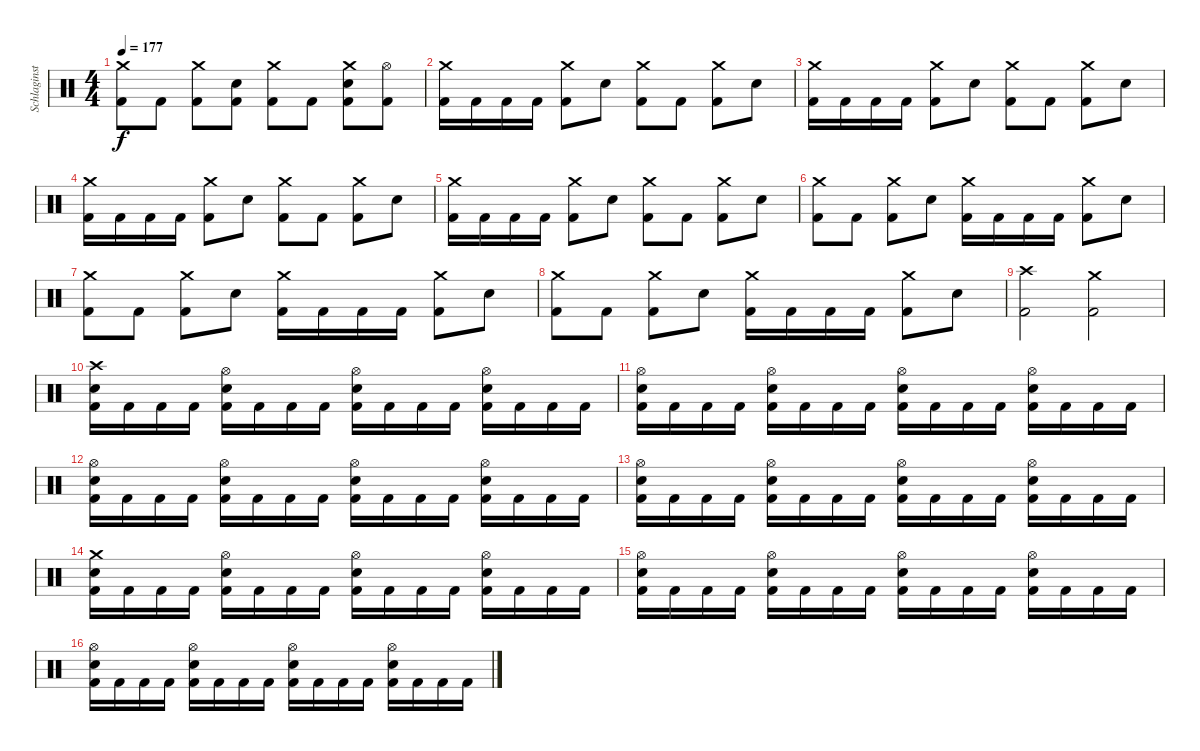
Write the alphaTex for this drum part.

\track ("Schlaginstrumente - Auswahl" "Schlaginst") {instrument percussion}
\staff {score}
\articulation defaults
\ts (4 4)
\tempo 177
\clef neutral
\ks c
("Crash medium (hit)" "Kick (hit) 2").8{dy f} "Kick (hit) 2".8 ("Crash medium (hit)" "Kick (hit) 2").8 ("Snare (hit) 2" "Kick (hit) 2").8 ("Crash medium (hit)" "Kick (hit) 2").8 "Kick (hit) 2".8 ("Crash medium (hit)" "Snare (hit) 2" "Kick (hit) 2").8 ("Hi-Hat (open)" "Kick (hit) 2").8 |
("Crash medium (hit)" "Kick (hit) 2").16 "Kick (hit) 2".16 "Kick (hit) 2".16 "Kick (hit) 2".16 ("Crash medium (hit)" "Kick (hit) 2").8 "Snare (hit) 2".8 ("Crash medium (hit)" "Kick (hit) 2").8 "Kick (hit) 2".8 ("Crash medium (hit)" "Kick (hit) 2").8 "Snare (hit) 2".8 |
("Crash medium (hit)" "Kick (hit) 2").16 "Kick (hit) 2".16 "Kick (hit) 2".16 "Kick (hit) 2".16 ("Crash medium (hit)" "Kick (hit) 2").8 "Snare (hit) 2".8 ("Crash medium (hit)" "Kick (hit) 2").8 "Kick (hit) 2".8 ("Crash medium (hit)" "Kick (hit) 2").8 "Snare (hit) 2".8 |
("Crash medium (hit)" "Kick (hit) 2").16 "Kick (hit) 2".16 "Kick (hit) 2".16 "Kick (hit) 2".16 ("Crash medium (hit)" "Kick (hit) 2").8 "Snare (hit) 2".8 ("Crash medium (hit)" "Kick (hit) 2").8 "Kick (hit) 2".8 ("Crash medium (hit)" "Kick (hit) 2").8 "Snare (hit) 2".8 |
("Crash medium (hit)" "Kick (hit) 2").16 "Kick (hit) 2".16 "Kick (hit) 2".16 "Kick (hit) 2".16 ("Crash medium (hit)" "Kick (hit) 2").8 "Snare (hit) 2".8 ("Crash medium (hit)" "Kick (hit) 2").8 "Kick (hit) 2".8 ("Crash medium (hit)" "Kick (hit) 2").8 "Snare (hit) 2".8 |
("Crash medium (hit)" "Kick (hit) 2").8 "Kick (hit) 2".8 ("Crash medium (hit)" "Kick (hit) 2").8 "Snare (hit) 2".8 ("Crash medium (hit)" "Kick (hit) 2").16 "Kick (hit) 2".16 "Kick (hit) 2".16 "Kick (hit) 2".16 ("Crash medium (hit)" "Kick (hit) 2").8 "Snare (hit) 2".8 |
("Crash medium (hit)" "Kick (hit) 2").8 "Kick (hit) 2".8 ("Crash medium (hit)" "Kick (hit) 2").8 "Snare (hit) 2".8 ("Crash medium (hit)" "Kick (hit) 2").16 "Kick (hit) 2".16 "Kick (hit) 2".16 "Kick (hit) 2".16 ("Crash medium (hit)" "Kick (hit) 2").8 "Snare (hit) 2".8 |
("Crash medium (hit)" "Kick (hit) 2").8 "Kick (hit) 2".8 ("Crash medium (hit)" "Kick (hit) 2").8 "Snare (hit) 2".8 ("Crash medium (hit)" "Kick (hit) 2").16 "Kick (hit) 2".16 "Kick (hit) 2".16 "Kick (hit) 2".16 ("Crash medium (hit)" "Kick (hit) 2").8 "Snare (hit) 2".8 |
("Crash high (hit)" "Kick (hit) 2").2 ("Crash medium (hit)" "Kick (hit) 2").2 |
("Snare (hit) 2" "Crash high (hit)" "Kick (hit) 2").16 "Kick (hit) 2".16 "Kick (hit) 2".16 "Kick (hit) 2".16 ("Hi-Hat (open)" "Snare (hit) 2" "Kick (hit) 2").16 "Kick (hit) 2".16 "Kick (hit) 2".16 "Kick (hit) 2".16 ("Hi-Hat (open)" "Snare (hit) 2" "Kick (hit) 2").16 "Kick (hit) 2".16 "Kick (hit) 2".16 "Kick (hit) 2".16 ("Hi-Hat (open)" "Snare (hit) 2" "Kick (hit) 2").16 "Kick (hit) 2".16 "Kick (hit) 2".16 "Kick (hit) 2".16 |
("Hi-Hat (open)" "Snare (hit) 2" "Kick (hit) 2").16 "Kick (hit) 2".16 "Kick (hit) 2".16 "Kick (hit) 2".16 ("Hi-Hat (open)" "Snare (hit) 2" "Kick (hit) 2").16 "Kick (hit) 2".16 "Kick (hit) 2".16 "Kick (hit) 2".16 ("Hi-Hat (open)" "Snare (hit) 2" "Kick (hit) 2").16 "Kick (hit) 2".16 "Kick (hit) 2".16 "Kick (hit) 2".16 ("Hi-Hat (open)" "Snare (hit) 2" "Kick (hit) 2").16 "Kick (hit) 2".16 "Kick (hit) 2".16 "Kick (hit) 2".16 |
("Snare (hit) 2" "Hi-Hat (open)" "Kick (hit) 2").16 "Kick (hit) 2".16 "Kick (hit) 2".16 "Kick (hit) 2".16 ("Hi-Hat (open)" "Snare (hit) 2" "Kick (hit) 2").16 "Kick (hit) 2".16 "Kick (hit) 2".16 "Kick (hit) 2".16 ("Hi-Hat (open)" "Snare (hit) 2" "Kick (hit) 2").16 "Kick (hit) 2".16 "Kick (hit) 2".16 "Kick (hit) 2".16 ("Hi-Hat (open)" "Snare (hit) 2" "Kick (hit) 2").16 "Kick (hit) 2".16 "Kick (hit) 2".16 "Kick (hit) 2".16 |
("Hi-Hat (open)" "Snare (hit) 2" "Kick (hit) 2").16 "Kick (hit) 2".16 "Kick (hit) 2".16 "Kick (hit) 2".16 ("Hi-Hat (open)" "Snare (hit) 2" "Kick (hit) 2").16 "Kick (hit) 2".16 "Kick (hit) 2".16 "Kick (hit) 2".16 ("Hi-Hat (open)" "Snare (hit) 2" "Kick (hit) 2").16 "Kick (hit) 2".16 "Kick (hit) 2".16 "Kick (hit) 2".16 ("Hi-Hat (open)" "Snare (hit) 2" "Kick (hit) 2").16 "Kick (hit) 2".16 "Kick (hit) 2".16 "Kick (hit) 2".16 |
("Snare (hit) 2" "Crash medium (hit)" "Kick (hit) 2").16 "Kick (hit) 2".16 "Kick (hit) 2".16 "Kick (hit) 2".16 ("Hi-Hat (open)" "Snare (hit) 2" "Kick (hit) 2").16 "Kick (hit) 2".16 "Kick (hit) 2".16 "Kick (hit) 2".16 ("Hi-Hat (open)" "Snare (hit) 2" "Kick (hit) 2").16 "Kick (hit) 2".16 "Kick (hit) 2".16 "Kick (hit) 2".16 ("Hi-Hat (open)" "Snare (hit) 2" "Kick (hit) 2").16 "Kick (hit) 2".16 "Kick (hit) 2".16 "Kick (hit) 2".16 |
("Hi-Hat (open)" "Snare (hit) 2" "Kick (hit) 2").16 "Kick (hit) 2".16 "Kick (hit) 2".16 "Kick (hit) 2".16 ("Hi-Hat (open)" "Snare (hit) 2" "Kick (hit) 2").16 "Kick (hit) 2".16 "Kick (hit) 2".16 "Kick (hit) 2".16 ("Hi-Hat (open)" "Snare (hit) 2" "Kick (hit) 2").16 "Kick (hit) 2".16 "Kick (hit) 2".16 "Kick (hit) 2".16 ("Hi-Hat (open)" "Snare (hit) 2" "Kick (hit) 2").16 "Kick (hit) 2".16 "Kick (hit) 2".16 "Kick (hit) 2".16 |
("Snare (hit) 2" "Hi-Hat (open)" "Kick (hit) 2").16 "Kick (hit) 2".16 "Kick (hit) 2".16 "Kick (hit) 2".16 ("Hi-Hat (open)" "Snare (hit) 2" "Kick (hit) 2").16 "Kick (hit) 2".16 "Kick (hit) 2".16 "Kick (hit) 2".16 ("Hi-Hat (open)" "Snare (hit) 2" "Kick (hit) 2").16 "Kick (hit) 2".16 "Kick (hit) 2".16 "Kick (hit) 2".16 ("Hi-Hat (open)" "Snare (hit) 2" "Kick (hit) 2").16 "Kick (hit) 2".16 "Kick (hit) 2".16 "Kick (hit) 2".16
